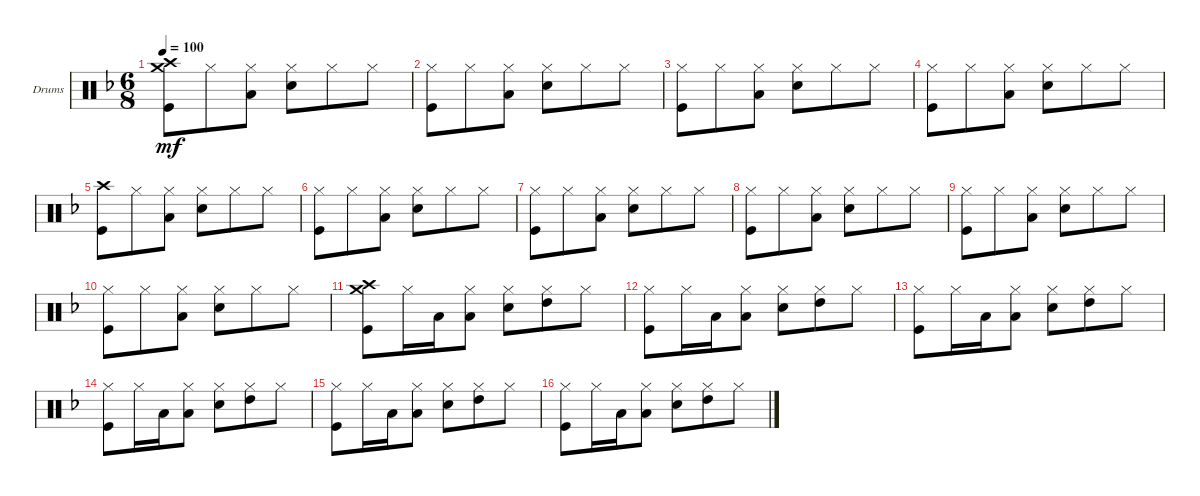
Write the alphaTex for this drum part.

\defaultSystemsLayout 4
\bracketExtendMode groupsimilarinstruments
\firstSystemTrackNameOrientation horizontal
\otherSystemsTrackNameOrientation horizontal
\track ("Drumkit" "Drums") {instrument percussion}
\staff {score}
\articulation defaults
\ts (6 8)
\tempo 100
\clef neutral
\ks dminor
("Kick (hit)" "Crash high (hit)" "Crash medium (hit)").8{dy mf} "Hi-Hat (closed)".8 ("Hi-Hat (closed)" "Low Tom (hit)").8 ("Hi-Hat (closed)" "Snare (hit) 2").8 "Hi-Hat (closed)".8 "Hi-Hat (closed)".8 |
("Kick (hit)" "Hi-Hat (closed)").8 "Hi-Hat (closed)".8 ("Hi-Hat (closed)" "Low Tom (hit)").8 ("Hi-Hat (closed)" "Snare (hit) 2").8 "Hi-Hat (closed)".8 "Hi-Hat (closed)".8 |
("Kick (hit)" "Hi-Hat (closed)").8 "Hi-Hat (closed)".8 ("Hi-Hat (closed)" "Low Tom (hit)").8 ("Hi-Hat (closed)" "Snare (hit) 2").8 "Hi-Hat (closed)".8 "Hi-Hat (closed)".8 |
("Kick (hit)" "Hi-Hat (closed)").8 "Hi-Hat (closed)".8 ("Hi-Hat (closed)" "Low Tom (hit)").8 ("Hi-Hat (closed)" "Snare (hit) 2").8 "Hi-Hat (closed)".8 "Hi-Hat (closed)".8 |
("Kick (hit)" "Crash high (hit)").8 "Hi-Hat (closed)".8 ("Hi-Hat (closed)" "Low Tom (hit)").8 ("Hi-Hat (closed)" "Snare (hit) 2").8 "Hi-Hat (closed)".8 "Hi-Hat (closed)".8 |
("Kick (hit)" "Hi-Hat (closed)").8 "Hi-Hat (closed)".8 ("Hi-Hat (closed)" "Low Tom (hit)").8 ("Hi-Hat (closed)" "Snare (hit) 2").8 "Hi-Hat (closed)".8 "Hi-Hat (closed)".8 |
("Kick (hit)" "Hi-Hat (closed)").8 "Hi-Hat (closed)".8 ("Hi-Hat (closed)" "Low Tom (hit)").8 ("Hi-Hat (closed)" "Snare (hit) 2").8 "Hi-Hat (closed)".8 "Hi-Hat (closed)".8 |
("Kick (hit)" "Hi-Hat (closed)").8 "Hi-Hat (closed)".8 ("Hi-Hat (closed)" "Low Tom (hit)").8 ("Hi-Hat (closed)" "Snare (hit) 2").8 "Hi-Hat (closed)".8 "Hi-Hat (closed)".8 |
("Kick (hit)" "Hi-Hat (closed)").8 "Hi-Hat (closed)".8 ("Hi-Hat (closed)" "Low Tom (hit)").8 ("Hi-Hat (closed)" "Snare (hit) 2").8 "Hi-Hat (closed)".8 "Hi-Hat (closed)".8 |
("Kick (hit)" "Hi-Hat (closed)").8 "Hi-Hat (closed)".8 ("Hi-Hat (closed)" "Low Tom (hit)").8 ("Hi-Hat (closed)" "Snare (hit) 2").8 "Hi-Hat (closed)".8 "Hi-Hat (closed)".8 |
("Kick (hit)" "Crash high (hit)" "Crash medium (hit)").8 "Hi-Hat (closed)".16 "Low Tom (hit)".16 ("Hi-Hat (closed)" "Low Tom (hit)").8 ("Hi-Hat (closed)" "Snare (hit) 2").8 ("Hi-Hat (closed)" "High Tom (hit)").8 "Hi-Hat (closed)".8 |
("Kick (hit)" "Hi-Hat (closed)").8 "Hi-Hat (closed)".16 "Low Tom (hit)".16 ("Hi-Hat (closed)" "Low Tom (hit)").8 ("Hi-Hat (closed)" "Snare (hit) 2").8 ("Hi-Hat (closed)" "High Tom (hit)").8 "Hi-Hat (closed)".8 |
("Kick (hit)" "Hi-Hat (closed)").8 "Hi-Hat (closed)".16 "Low Tom (hit)".16 ("Hi-Hat (closed)" "Low Tom (hit)").8 ("Hi-Hat (closed)" "Snare (hit) 2").8 ("Hi-Hat (closed)" "High Tom (hit)").8 "Hi-Hat (closed)".8 |
("Kick (hit)" "Hi-Hat (closed)").8 "Hi-Hat (closed)".16 "Low Tom (hit)".16 ("Hi-Hat (closed)" "Low Tom (hit)").8 ("Hi-Hat (closed)" "Snare (hit) 2").8 ("Hi-Hat (closed)" "High Tom (hit)").8 "Hi-Hat (closed)".8 |
("Kick (hit)" "Hi-Hat (closed)").8 "Hi-Hat (closed)".16 "Low Tom (hit)".16 ("Hi-Hat (closed)" "Low Tom (hit)").8 ("Hi-Hat (closed)" "Snare (hit) 2").8 ("Hi-Hat (closed)" "High Tom (hit)").8 "Hi-Hat (closed)".8 |
("Kick (hit)" "Hi-Hat (closed)").8 "Hi-Hat (closed)".16 "Low Tom (hit)".16 ("Hi-Hat (closed)" "Low Tom (hit)").8 ("Hi-Hat (closed)" "Snare (hit) 2").8 ("Hi-Hat (closed)" "High Tom (hit)").8 "Hi-Hat (closed)".8
